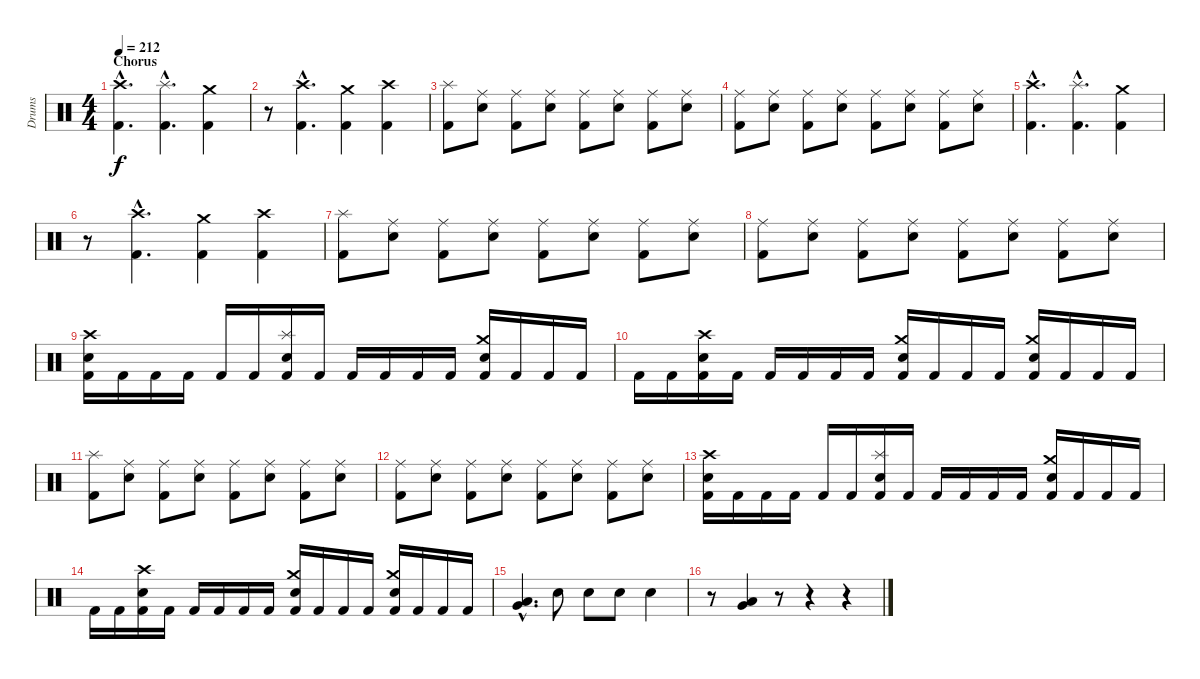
\track ("Drums" "Drums") {instrument percussion}
\staff {score}
\articulation defaults
\ts (4 4)
\section ("" "Chorus")
\tempo 212
\clef neutral
\ks c
("Crash high (hit)"{hac} "Kick (hit) 2"{hac}).4{d dy f} ("Splash (hit)"{hac} "Kick (hit) 2"{hac}).4{d} ("Crash medium (hit)" "Kick (hit) 2").4 |
r.8 ("Crash high (hit)"{hac} "Kick (hit) 2"{hac}).4{d} ("Crash medium (hit)" "Kick (hit) 2").4 ("Crash high (hit)" "Kick (hit) 2").4 |
("Splash (hit)" "Kick (hit) 2").8 ("Ride (middle)" "Electric Snare (hit)").8 ("Ride (middle)" "Kick (hit) 2").8 ("Ride (middle)" "Electric Snare (hit)").8 ("Ride (middle)" "Kick (hit) 2").8 ("Ride (middle)" "Electric Snare (hit)").8 ("Ride (middle)" "Kick (hit) 2").8 ("Ride (middle)" "Electric Snare (hit)").8 |
("Ride (middle)" "Kick (hit) 2").8 ("Ride (middle)" "Electric Snare (hit)").8 ("Ride (middle)" "Kick (hit) 2").8 ("Ride (middle)" "Electric Snare (hit)").8 ("Ride (middle)" "Kick (hit) 2").8 ("Ride (middle)" "Electric Snare (hit)").8 ("Ride (middle)" "Kick (hit) 2").8 ("Ride (middle)" "Electric Snare (hit)").8 |
("Crash high (hit)"{hac} "Kick (hit) 2"{hac}).4{d} ("Splash (hit)"{hac} "Kick (hit) 2"{hac}).4{d} ("Crash medium (hit)" "Kick (hit) 2").4 |
r.8 ("Crash high (hit)"{hac} "Kick (hit) 2"{hac}).4{d} ("Crash medium (hit)" "Kick (hit) 2").4 ("Crash high (hit)" "Kick (hit) 2").4 |
("Splash (hit)" "Kick (hit) 2").8 ("Ride (middle)" "Electric Snare (hit)").8 ("Ride (middle)" "Kick (hit) 2").8 ("Ride (middle)" "Electric Snare (hit)").8 ("Ride (middle)" "Kick (hit) 2").8 ("Ride (middle)" "Electric Snare (hit)").8 ("Ride (middle)" "Kick (hit) 2").8 ("Ride (middle)" "Electric Snare (hit)").8 |
("Ride (middle)" "Kick (hit) 2").8 ("Ride (middle)" "Electric Snare (hit)").8 ("Ride (middle)" "Kick (hit) 2").8 ("Ride (middle)" "Electric Snare (hit)").8 ("Ride (middle)" "Kick (hit) 2").8 ("Ride (middle)" "Electric Snare (hit)").8 ("Ride (middle)" "Kick (hit) 2").8 ("Ride (middle)" "Electric Snare (hit)").8 |
("Crash high (hit)" "Electric Snare (hit)" "Kick (hit) 2").16 "Kick (hit) 2".16 "Kick (hit) 2".16 "Kick (hit) 2".16 "Kick (hit) 2".16 "Kick (hit) 2".16 ("Splash (hit)" "Electric Snare (hit)" "Kick (hit) 2").16 "Kick (hit) 2".16 "Kick (hit) 2".16 "Kick (hit) 2".16 "Kick (hit) 2".16 "Kick (hit) 2".16 ("Crash medium (hit)" "Electric Snare (hit)" "Kick (hit) 2").16 "Kick (hit) 2".16 "Kick (hit) 2".16 "Kick (hit) 2".16 |
"Kick (hit) 2".16 "Kick (hit) 2".16 ("Crash high (hit)" "Electric Snare (hit)" "Kick (hit) 2").16 "Kick (hit) 2".16 "Kick (hit) 2".16 "Kick (hit) 2".16 "Kick (hit) 2".16 "Kick (hit) 2".16 ("Crash medium (hit)" "Electric Snare (hit)" "Kick (hit) 2").16 "Kick (hit) 2".16 "Kick (hit) 2".16 "Kick (hit) 2".16 ("Crash medium (hit)" "Electric Snare (hit)" "Kick (hit) 2").16 "Kick (hit) 2".16 "Kick (hit) 2".16 "Kick (hit) 2".16 |
("Splash (hit)" "Kick (hit) 2").8 ("Ride (middle)" "Electric Snare (hit)").8 ("Ride (middle)" "Kick (hit) 2").8 ("Ride (middle)" "Electric Snare (hit)").8 ("Ride (middle)" "Kick (hit) 2").8 ("Ride (middle)" "Electric Snare (hit)").8 ("Ride (middle)" "Kick (hit) 2").8 ("Ride (middle)" "Electric Snare (hit)").8 |
("Ride (middle)" "Kick (hit) 2").8 ("Ride (middle)" "Electric Snare (hit)").8 ("Ride (middle)" "Kick (hit) 2").8 ("Ride (middle)" "Electric Snare (hit)").8 ("Ride (middle)" "Kick (hit) 2").8 ("Ride (middle)" "Electric Snare (hit)").8 ("Ride (middle)" "Kick (hit) 2").8 ("Ride (middle)" "Electric Snare (hit)").8 |
("Crash high (hit)" "Electric Snare (hit)" "Kick (hit) 2").16 "Kick (hit) 2".16 "Kick (hit) 2".16 "Kick (hit) 2".16 "Kick (hit) 2".16 "Kick (hit) 2".16 ("Splash (hit)" "Electric Snare (hit)" "Kick (hit) 2").16 "Kick (hit) 2".16 "Kick (hit) 2".16 "Kick (hit) 2".16 "Kick (hit) 2".16 "Kick (hit) 2".16 ("Crash medium (hit)" "Electric Snare (hit)" "Kick (hit) 2").16 "Kick (hit) 2".16 "Kick (hit) 2".16 "Kick (hit) 2".16 |
"Kick (hit) 2".16 "Kick (hit) 2".16 ("Crash high (hit)" "Electric Snare (hit)" "Kick (hit) 2").16 "Kick (hit) 2".16 "Kick (hit) 2".16 "Kick (hit) 2".16 "Kick (hit) 2".16 "Kick (hit) 2".16 ("Crash medium (hit)" "Electric Snare (hit)" "Kick (hit) 2").16 "Kick (hit) 2".16 "Kick (hit) 2".16 "Kick (hit) 2".16 ("Crash medium (hit)" "Electric Snare (hit)" "Kick (hit) 2").16 "Kick (hit) 2".16 "Kick (hit) 2".16 "Kick (hit) 2".16 |
("Very Low Tom (hit)"{hac} "Low Floor Tom (hit)"{hac}).4{d} "Electric Snare (hit)".8 "Electric Snare (hit)".8 "Electric Snare (hit)".8 "Electric Snare (hit)".4 |
r.8 ("Very Low Tom (hit)" "Low Floor Tom (hit)").4 r.8 r.4 r.4
